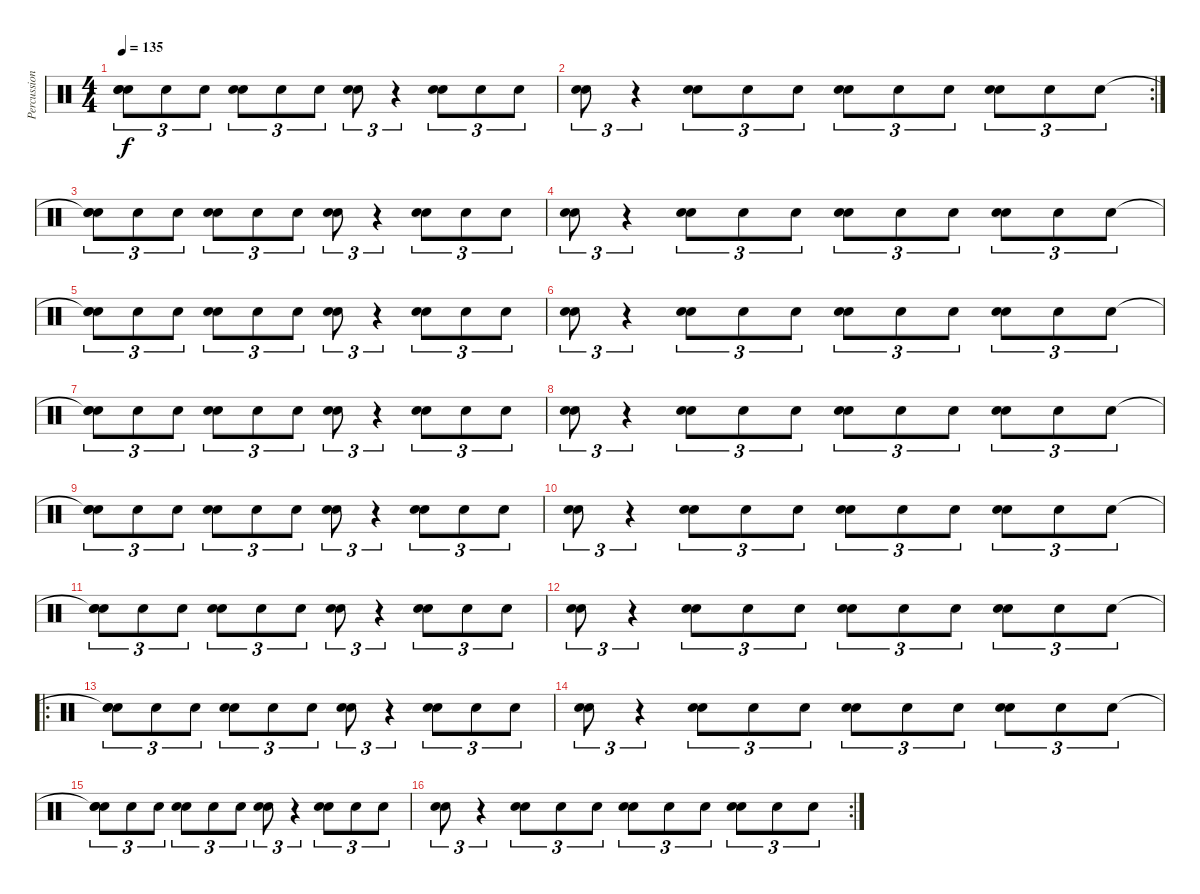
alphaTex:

\track ("Percussion" "Percussion") {instrument percussion bank 5}
\staff {score}
\articulation defaults
\ts (4 4)
\tempo 135
\clef neutral
\ks c
("Snare (hit)"{t} "Hand Clap (hit)" "Electric Snare (hit)").8{tu (3 2) dy f} "Electric Snare (hit)".8{tu (3 2)} "Electric Snare (hit)".8{tu (3 2)} ("Hand Clap (hit)" "Electric Snare (hit)").8{tu (3 2)} "Electric Snare (hit)".8{tu (3 2)} "Electric Snare (hit)".8{tu (3 2)} ("Hand Clap (hit)" "Electric Snare (hit)").8{tu (3 2)} r.4{tu (3 2)} ("Hand Clap (hit)" "Electric Snare (hit)").8{tu (3 2)} "Electric Snare (hit)".8{tu (3 2)} "Electric Snare (hit)".8{tu (3 2)} |
\rc 2
("Hand Clap (hit)" "Electric Snare (hit)").8{tu (3 2)} r.4{tu (3 2)} ("Hand Clap (hit)" "Electric Snare (hit)").8{tu (3 2)} "Electric Snare (hit)".8{tu (3 2)} "Electric Snare (hit)".8{tu (3 2)} ("Hand Clap (hit)" "Electric Snare (hit)").8{tu (3 2)} "Electric Snare (hit)".8{tu (3 2)} "Electric Snare (hit)".8{tu (3 2)} ("Hand Clap (hit)" "Electric Snare (hit)").8{tu (3 2)} "Electric Snare (hit)".8{tu (3 2)} "Electric Snare (hit)".8{tu (3 2)} |
("Snare (hit)"{t} "Hand Clap (hit)" "Electric Snare (hit)").8{tu (3 2) volume 14} "Electric Snare (hit)".8{tu (3 2)} "Electric Snare (hit)".8{tu (3 2)} ("Hand Clap (hit)" "Electric Snare (hit)").8{tu (3 2)} "Electric Snare (hit)".8{tu (3 2)} "Electric Snare (hit)".8{tu (3 2)} ("Hand Clap (hit)" "Electric Snare (hit)").8{tu (3 2)} r.4{tu (3 2)} ("Hand Clap (hit)" "Electric Snare (hit)").8{tu (3 2)} "Electric Snare (hit)".8{tu (3 2)} "Electric Snare (hit)".8{tu (3 2)} |
("Hand Clap (hit)" "Electric Snare (hit)").8{tu (3 2)} r.4{tu (3 2)} ("Hand Clap (hit)" "Electric Snare (hit)").8{tu (3 2)} "Electric Snare (hit)".8{tu (3 2)} "Electric Snare (hit)".8{tu (3 2)} ("Hand Clap (hit)" "Electric Snare (hit)").8{tu (3 2)} "Electric Snare (hit)".8{tu (3 2)} "Electric Snare (hit)".8{tu (3 2)} ("Hand Clap (hit)" "Electric Snare (hit)").8{tu (3 2)} "Electric Snare (hit)".8{tu (3 2)} "Electric Snare (hit)".8{tu (3 2)} |
("Snare (hit)"{t} "Hand Clap (hit)" "Electric Snare (hit)").8{tu (3 2)} "Electric Snare (hit)".8{tu (3 2)} "Electric Snare (hit)".8{tu (3 2)} ("Hand Clap (hit)" "Electric Snare (hit)").8{tu (3 2)} "Electric Snare (hit)".8{tu (3 2)} "Electric Snare (hit)".8{tu (3 2)} ("Hand Clap (hit)" "Electric Snare (hit)").8{tu (3 2)} r.4{tu (3 2)} ("Hand Clap (hit)" "Electric Snare (hit)").8{tu (3 2)} "Electric Snare (hit)".8{tu (3 2)} "Electric Snare (hit)".8{tu (3 2)} |
("Hand Clap (hit)" "Electric Snare (hit)").8{tu (3 2)} r.4{tu (3 2)} ("Hand Clap (hit)" "Electric Snare (hit)").8{tu (3 2)} "Electric Snare (hit)".8{tu (3 2)} "Electric Snare (hit)".8{tu (3 2)} ("Hand Clap (hit)" "Electric Snare (hit)").8{tu (3 2)} "Electric Snare (hit)".8{tu (3 2)} "Electric Snare (hit)".8{tu (3 2)} ("Hand Clap (hit)" "Electric Snare (hit)").8{tu (3 2)} "Electric Snare (hit)".8{tu (3 2)} "Electric Snare (hit)".8{tu (3 2)} |
("Snare (hit)"{t} "Hand Clap (hit)" "Electric Snare (hit)").8{tu (3 2)} "Electric Snare (hit)".8{tu (3 2)} "Electric Snare (hit)".8{tu (3 2)} ("Hand Clap (hit)" "Electric Snare (hit)").8{tu (3 2)} "Electric Snare (hit)".8{tu (3 2)} "Electric Snare (hit)".8{tu (3 2)} ("Hand Clap (hit)" "Electric Snare (hit)").8{tu (3 2)} r.4{tu (3 2)} ("Hand Clap (hit)" "Electric Snare (hit)").8{tu (3 2)} "Electric Snare (hit)".8{tu (3 2)} "Electric Snare (hit)".8{tu (3 2)} |
("Hand Clap (hit)" "Electric Snare (hit)").8{tu (3 2)} r.4{tu (3 2)} ("Hand Clap (hit)" "Electric Snare (hit)").8{tu (3 2)} "Electric Snare (hit)".8{tu (3 2)} "Electric Snare (hit)".8{tu (3 2)} ("Hand Clap (hit)" "Electric Snare (hit)").8{tu (3 2)} "Electric Snare (hit)".8{tu (3 2)} "Electric Snare (hit)".8{tu (3 2)} ("Hand Clap (hit)" "Electric Snare (hit)").8{tu (3 2)} "Electric Snare (hit)".8{tu (3 2)} "Electric Snare (hit)".8{tu (3 2)} |
("Snare (hit)"{t} "Hand Clap (hit)" "Electric Snare (hit)").8{tu (3 2)} "Electric Snare (hit)".8{tu (3 2)} "Electric Snare (hit)".8{tu (3 2)} ("Hand Clap (hit)" "Electric Snare (hit)").8{tu (3 2)} "Electric Snare (hit)".8{tu (3 2)} "Electric Snare (hit)".8{tu (3 2)} ("Hand Clap (hit)" "Electric Snare (hit)").8{tu (3 2)} r.4{tu (3 2)} ("Hand Clap (hit)" "Electric Snare (hit)").8{tu (3 2)} "Electric Snare (hit)".8{tu (3 2)} "Electric Snare (hit)".8{tu (3 2)} |
("Hand Clap (hit)" "Electric Snare (hit)").8{tu (3 2)} r.4{tu (3 2)} ("Hand Clap (hit)" "Electric Snare (hit)").8{tu (3 2)} "Electric Snare (hit)".8{tu (3 2)} "Electric Snare (hit)".8{tu (3 2)} ("Hand Clap (hit)" "Electric Snare (hit)").8{tu (3 2)} "Electric Snare (hit)".8{tu (3 2)} "Electric Snare (hit)".8{tu (3 2)} ("Hand Clap (hit)" "Electric Snare (hit)").8{tu (3 2)} "Electric Snare (hit)".8{tu (3 2)} "Electric Snare (hit)".8{tu (3 2)} |
("Snare (hit)"{t} "Hand Clap (hit)" "Electric Snare (hit)").8{tu (3 2)} "Electric Snare (hit)".8{tu (3 2)} "Electric Snare (hit)".8{tu (3 2)} ("Hand Clap (hit)" "Electric Snare (hit)").8{tu (3 2)} "Electric Snare (hit)".8{tu (3 2)} "Electric Snare (hit)".8{tu (3 2)} ("Hand Clap (hit)" "Electric Snare (hit)").8{tu (3 2)} r.4{tu (3 2)} ("Hand Clap (hit)" "Electric Snare (hit)").8{tu (3 2)} "Electric Snare (hit)".8{tu (3 2)} "Electric Snare (hit)".8{tu (3 2)} |
("Hand Clap (hit)" "Electric Snare (hit)").8{tu (3 2)} r.4{tu (3 2)} ("Hand Clap (hit)" "Electric Snare (hit)").8{tu (3 2)} "Electric Snare (hit)".8{tu (3 2)} "Electric Snare (hit)".8{tu (3 2)} ("Hand Clap (hit)" "Electric Snare (hit)").8{tu (3 2)} "Electric Snare (hit)".8{tu (3 2)} "Electric Snare (hit)".8{tu (3 2)} ("Hand Clap (hit)" "Electric Snare (hit)").8{tu (3 2)} "Electric Snare (hit)".8{tu (3 2)} "Electric Snare (hit)".8{tu (3 2)} |
\ro
("Snare (hit)"{t} "Hand Clap (hit)" "Electric Snare (hit)").8{tu (3 2)} "Electric Snare (hit)".8{tu (3 2)} "Electric Snare (hit)".8{tu (3 2)} ("Hand Clap (hit)" "Electric Snare (hit)").8{tu (3 2)} "Electric Snare (hit)".8{tu (3 2)} "Electric Snare (hit)".8{tu (3 2)} ("Hand Clap (hit)" "Electric Snare (hit)").8{tu (3 2)} r.4{tu (3 2)} ("Hand Clap (hit)" "Electric Snare (hit)").8{tu (3 2)} "Electric Snare (hit)".8{tu (3 2)} "Electric Snare (hit)".8{tu (3 2)} |
("Hand Clap (hit)" "Electric Snare (hit)").8{tu (3 2)} r.4{tu (3 2)} ("Hand Clap (hit)" "Electric Snare (hit)").8{tu (3 2)} "Electric Snare (hit)".8{tu (3 2)} "Electric Snare (hit)".8{tu (3 2)} ("Hand Clap (hit)" "Electric Snare (hit)").8{tu (3 2)} "Electric Snare (hit)".8{tu (3 2)} "Electric Snare (hit)".8{tu (3 2)} ("Hand Clap (hit)" "Electric Snare (hit)").8{tu (3 2)} "Electric Snare (hit)".8{tu (3 2)} "Electric Snare (hit)".8{tu (3 2)} |
("Snare (hit)"{t} "Hand Clap (hit)" "Electric Snare (hit)").8{tu (3 2)} "Electric Snare (hit)".8{tu (3 2)} "Electric Snare (hit)".8{tu (3 2)} ("Hand Clap (hit)" "Electric Snare (hit)").8{tu (3 2)} "Electric Snare (hit)".8{tu (3 2)} "Electric Snare (hit)".8{tu (3 2)} ("Hand Clap (hit)" "Electric Snare (hit)").8{tu (3 2)} r.4{tu (3 2)} ("Hand Clap (hit)" "Electric Snare (hit)").8{tu (3 2)} "Electric Snare (hit)".8{tu (3 2)} "Electric Snare (hit)".8{tu (3 2)} |
\rc 2
("Hand Clap (hit)" "Electric Snare (hit)").8{tu (3 2)} r.4{tu (3 2)} ("Hand Clap (hit)" "Electric Snare (hit)").8{tu (3 2)} "Electric Snare (hit)".8{tu (3 2)} "Electric Snare (hit)".8{tu (3 2)} ("Hand Clap (hit)" "Electric Snare (hit)").8{tu (3 2)} "Electric Snare (hit)".8{tu (3 2)} "Electric Snare (hit)".8{tu (3 2)} ("Hand Clap (hit)" "Electric Snare (hit)").8{tu (3 2)} "Electric Snare (hit)".8{tu (3 2)} "Electric Snare (hit)".8{tu (3 2)}
